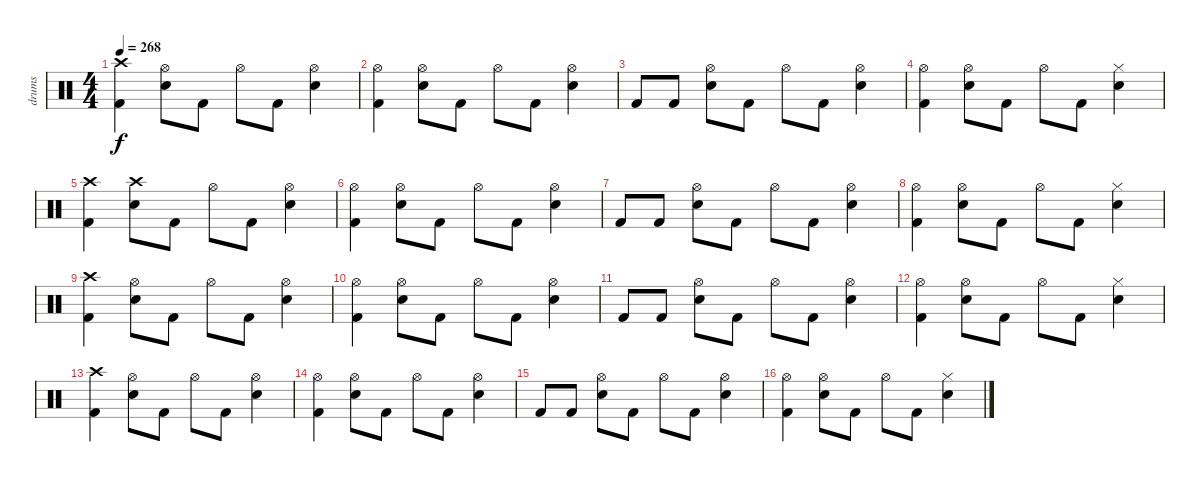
\track ("drums" "drums") {instrument percussion}
\staff {score}
\articulation defaults
\ts (4 4)
\tempo 268
\clef neutral
\ks c
("Crash high (hit)" "Kick (hit) 2").4{dy f} ("Hi-Hat (open)" "Electric Snare (hit)").8 "Kick (hit) 2".8 "Hi-Hat (open)".8 "Kick (hit) 2".8 ("Hi-Hat (open)" "Electric Snare (hit)").4 |
("Hi-Hat (open)" "Kick (hit) 2").4 ("Hi-Hat (open)" "Electric Snare (hit)").8 "Kick (hit) 2".8 "Hi-Hat (open)".8 "Kick (hit) 2".8 ("Hi-Hat (open)" "Electric Snare (hit)").4 |
"Kick (hit) 2".8 "Kick (hit) 2".8 ("Hi-Hat (open)" "Electric Snare (hit)").8 "Kick (hit) 2".8 "Hi-Hat (open)".8 "Kick (hit) 2".8 ("Hi-Hat (open)" "Electric Snare (hit)").4 |
("Hi-Hat (open)" "Kick (hit) 2").4 ("Hi-Hat (open)" "Electric Snare (hit)").8 "Kick (hit) 2".8 "Hi-Hat (open)".8 "Kick (hit) 2".8 ("Hi-Hat (closed)" "Electric Snare (hit)").4 |
("Crash high (hit)" "Kick (hit) 2").4 ("Crash high (hit)" "Electric Snare (hit)").8 "Kick (hit) 2".8 "Hi-Hat (open)".8 "Kick (hit) 2".8 ("Hi-Hat (open)" "Electric Snare (hit)").4 |
("Hi-Hat (open)" "Kick (hit) 2").4 ("Hi-Hat (open)" "Electric Snare (hit)").8 "Kick (hit) 2".8 "Hi-Hat (open)".8 "Kick (hit) 2".8 ("Hi-Hat (open)" "Electric Snare (hit)").4 |
"Kick (hit) 2".8 "Kick (hit) 2".8 ("Hi-Hat (open)" "Electric Snare (hit)").8 "Kick (hit) 2".8 "Hi-Hat (open)".8 "Kick (hit) 2".8 ("Hi-Hat (open)" "Electric Snare (hit)").4 |
("Hi-Hat (open)" "Kick (hit) 2").4 ("Hi-Hat (open)" "Electric Snare (hit)").8 "Kick (hit) 2".8 "Hi-Hat (open)".8 "Kick (hit) 2".8 ("Hi-Hat (closed)" "Electric Snare (hit)").4 |
("Crash high (hit)" "Kick (hit) 2").4 ("Hi-Hat (open)" "Electric Snare (hit)").8 "Kick (hit) 2".8 "Hi-Hat (open)".8 "Kick (hit) 2".8 ("Hi-Hat (open)" "Electric Snare (hit)").4 |
("Hi-Hat (open)" "Kick (hit) 2").4 ("Hi-Hat (open)" "Electric Snare (hit)").8 "Kick (hit) 2".8 "Hi-Hat (open)".8 "Kick (hit) 2".8 ("Hi-Hat (open)" "Electric Snare (hit)").4 |
"Kick (hit) 2".8 "Kick (hit) 2".8 ("Hi-Hat (open)" "Electric Snare (hit)").8 "Kick (hit) 2".8 "Hi-Hat (open)".8 "Kick (hit) 2".8 ("Hi-Hat (open)" "Electric Snare (hit)").4 |
("Hi-Hat (open)" "Kick (hit) 2").4 ("Hi-Hat (open)" "Electric Snare (hit)").8 "Kick (hit) 2".8 "Hi-Hat (open)".8 "Kick (hit) 2".8 ("Hi-Hat (closed)" "Electric Snare (hit)").4 |
("Crash high (hit)" "Kick (hit) 2").4 ("Hi-Hat (open)" "Electric Snare (hit)").8 "Kick (hit) 2".8 "Hi-Hat (open)".8 "Kick (hit) 2".8 ("Hi-Hat (open)" "Electric Snare (hit)").4 |
("Hi-Hat (open)" "Kick (hit) 2").4 ("Hi-Hat (open)" "Electric Snare (hit)").8 "Kick (hit) 2".8 "Hi-Hat (open)".8 "Kick (hit) 2".8 ("Hi-Hat (open)" "Electric Snare (hit)").4 |
"Kick (hit) 2".8 "Kick (hit) 2".8 ("Hi-Hat (open)" "Electric Snare (hit)").8 "Kick (hit) 2".8 "Hi-Hat (open)".8 "Kick (hit) 2".8 ("Hi-Hat (open)" "Electric Snare (hit)").4 |
("Hi-Hat (open)" "Kick (hit) 2").4 ("Hi-Hat (open)" "Electric Snare (hit)").8 "Kick (hit) 2".8 "Hi-Hat (open)".8 "Kick (hit) 2".8 ("Hi-Hat (closed)" "Electric Snare (hit)").4
